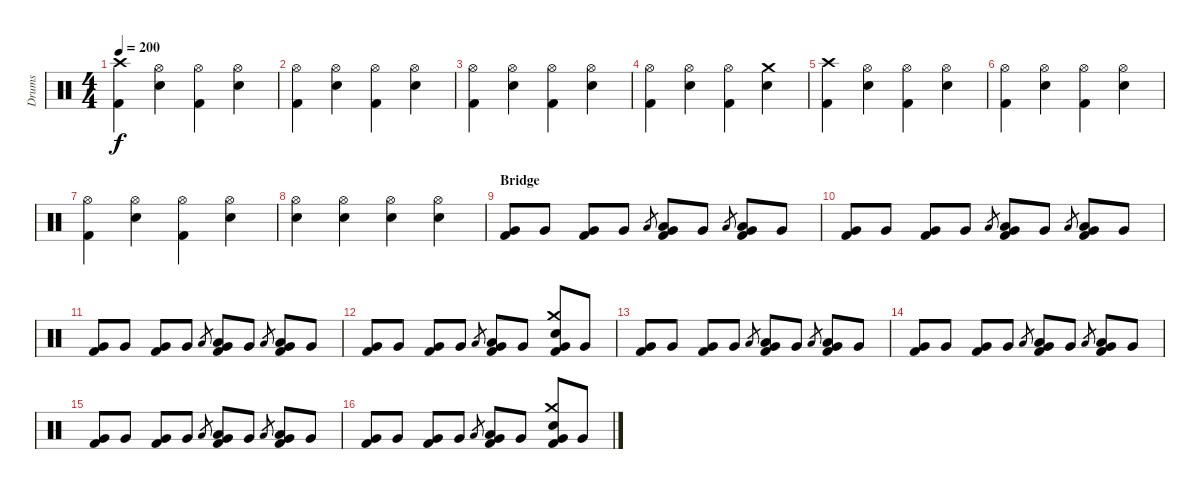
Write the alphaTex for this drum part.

\track ("Drums" "Drums") {instrument percussion}
\staff {score}
\articulation defaults
\ts (4 4)
\tempo 200
\clef neutral
\ks c
("Crash high (hit)" "Kick (hit) 2").4{dy f} ("Hi-Hat (open)" "Electric Snare (hit)").4 ("Hi-Hat (open)" "Kick (hit) 2").4 ("Hi-Hat (open)" "Electric Snare (hit)").4 |
("Hi-Hat (open)" "Kick (hit) 2").4 ("Hi-Hat (open)" "Electric Snare (hit)").4 ("Hi-Hat (open)" "Kick (hit) 2").4 ("Hi-Hat (open)" "Electric Snare (hit)").4 |
("Hi-Hat (open)" "Kick (hit) 2").4 ("Hi-Hat (open)" "Electric Snare (hit)").4 ("Hi-Hat (open)" "Kick (hit) 2").4 ("Hi-Hat (open)" "Electric Snare (hit)").4 |
("Hi-Hat (open)" "Kick (hit) 2").4 ("Hi-Hat (open)" "Electric Snare (hit)").4 ("Hi-Hat (open)" "Kick (hit) 2").4 ("Crash medium (hit)" "Electric Snare (hit)").4 |
("Crash high (hit)" "Kick (hit) 2").4 ("Hi-Hat (open)" "Electric Snare (hit)").4 ("Hi-Hat (open)" "Kick (hit) 2").4 ("Hi-Hat (open)" "Electric Snare (hit)").4 |
("Hi-Hat (open)" "Kick (hit) 2").4 ("Hi-Hat (open)" "Electric Snare (hit)").4 ("Hi-Hat (open)" "Kick (hit) 2").4 ("Hi-Hat (open)" "Electric Snare (hit)").4 |
("Hi-Hat (open)" "Kick (hit) 2").4 ("Hi-Hat (open)" "Electric Snare (hit)").4 ("Hi-Hat (open)" "Kick (hit) 2").4 ("Hi-Hat (open)" "Electric Snare (hit)").4 |
("Hi-Hat (open)" "Electric Snare (hit)").4 ("Hi-Hat (open)" "Electric Snare (hit)").4 ("Hi-Hat (open)" "Electric Snare (hit)").4 ("Hi-Hat (open)" "Electric Snare (hit)").4 |
\section ("" "Bridge")
("Very Low Tom (hit)" "Kick (hit) 2").8 "Very Low Tom (hit)".8 ("Very Low Tom (hit)" "Kick (hit) 2").8 "Very Low Tom (hit)".8 "Low Tom (hit)".8{gr} ("Low Tom (hit)" "Very Low Tom (hit)" "Kick (hit) 2").8 "Very Low Tom (hit)".8 "Low Floor Tom (hit)".8{gr} ("Low Floor Tom (hit)" "Very Low Tom (hit)" "Kick (hit) 2").8 "Very Low Tom (hit)".8 |
("Very Low Tom (hit)" "Kick (hit) 2").8 "Very Low Tom (hit)".8 ("Very Low Tom (hit)" "Kick (hit) 2").8 "Very Low Tom (hit)".8 "Low Tom (hit)".8{gr} ("Low Tom (hit)" "Very Low Tom (hit)" "Kick (hit) 2").8 "Very Low Tom (hit)".8 "Low Floor Tom (hit)".8{gr} ("Low Floor Tom (hit)" "Very Low Tom (hit)" "Kick (hit) 2").8 "Very Low Tom (hit)".8 |
("Very Low Tom (hit)" "Kick (hit) 2").8 "Very Low Tom (hit)".8 ("Very Low Tom (hit)" "Kick (hit) 2").8 "Very Low Tom (hit)".8 "Low Tom (hit)".8{gr} ("Low Tom (hit)" "Very Low Tom (hit)" "Kick (hit) 2").8 "Very Low Tom (hit)".8 "Low Floor Tom (hit)".8{gr} ("Low Floor Tom (hit)" "Very Low Tom (hit)" "Kick (hit) 2").8 "Very Low Tom (hit)".8 |
("Very Low Tom (hit)" "Kick (hit) 2").8 "Very Low Tom (hit)".8 ("Very Low Tom (hit)" "Kick (hit) 2").8 "Very Low Tom (hit)".8 "Low Tom (hit)".8{gr} ("Low Tom (hit)" "Very Low Tom (hit)" "Kick (hit) 2").8 "Very Low Tom (hit)".8 ("Crash medium (hit)" "Electric Snare (hit)" "Very Low Tom (hit)" "Kick (hit) 2").8 "Very Low Tom (hit)".8 |
("Very Low Tom (hit)" "Kick (hit) 2").8 "Very Low Tom (hit)".8 ("Very Low Tom (hit)" "Kick (hit) 2").8 "Very Low Tom (hit)".8 "Low Tom (hit)".8{gr} ("Low Tom (hit)" "Very Low Tom (hit)" "Kick (hit) 2").8 "Very Low Tom (hit)".8 "Low Floor Tom (hit)".8{gr} ("Low Floor Tom (hit)" "Very Low Tom (hit)" "Kick (hit) 2").8 "Very Low Tom (hit)".8 |
("Very Low Tom (hit)" "Kick (hit) 2").8 "Very Low Tom (hit)".8 ("Very Low Tom (hit)" "Kick (hit) 2").8 "Very Low Tom (hit)".8 "Low Tom (hit)".8{gr} ("Low Tom (hit)" "Very Low Tom (hit)" "Kick (hit) 2").8 "Very Low Tom (hit)".8 "Low Floor Tom (hit)".8{gr} ("Low Floor Tom (hit)" "Very Low Tom (hit)" "Kick (hit) 2").8 "Very Low Tom (hit)".8 |
("Very Low Tom (hit)" "Kick (hit) 2").8 "Very Low Tom (hit)".8 ("Very Low Tom (hit)" "Kick (hit) 2").8 "Very Low Tom (hit)".8 "Low Tom (hit)".8{gr} ("Low Tom (hit)" "Very Low Tom (hit)" "Kick (hit) 2").8 "Very Low Tom (hit)".8 "Low Floor Tom (hit)".8{gr} ("Low Floor Tom (hit)" "Very Low Tom (hit)" "Kick (hit) 2").8 "Very Low Tom (hit)".8 |
("Very Low Tom (hit)" "Kick (hit) 2").8 "Very Low Tom (hit)".8 ("Very Low Tom (hit)" "Kick (hit) 2").8 "Very Low Tom (hit)".8 "Low Tom (hit)".8{gr} ("Low Tom (hit)" "Very Low Tom (hit)" "Kick (hit) 2").8 "Very Low Tom (hit)".8 ("Crash medium (hit)" "Electric Snare (hit)" "Very Low Tom (hit)" "Kick (hit) 2").8 "Very Low Tom (hit)".8
